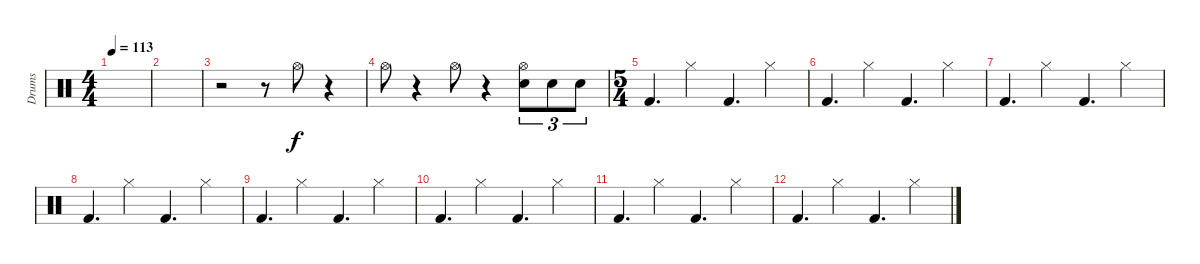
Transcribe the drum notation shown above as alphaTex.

\track ("Drums" "Drums") {instrument percussion}
\staff {score}
\articulation defaults
\ts (4 4)
\tempo 113
\clef neutral
\ks c
|
|
r.2 r.8 "Hi-Hat (open)".8 r.4 |
"Hi-Hat (open)".8 r.4 "Hi-Hat (open)".8 r.4 ("Hi-Hat (open)" "Electric Snare (hit)").8{tu (3 2)} "Electric Snare (hit)".8{tu (3 2)} "Electric Snare (hit)".8{tu (3 2)} |
\ts (5 4)
"Kick (hit) 2".4{d} "Hi-Hat (closed)".4 "Kick (hit) 2".4{d} "Hi-Hat (closed)".4 |
"Kick (hit) 2".4{d} "Hi-Hat (closed)".4 "Kick (hit) 2".4{d} "Hi-Hat (closed)".4 |
"Kick (hit) 2".4{d} "Hi-Hat (closed)".4 "Kick (hit) 2".4{d} "Hi-Hat (closed)".4 |
"Kick (hit) 2".4{d} "Hi-Hat (closed)".4 "Kick (hit) 2".4{d} "Hi-Hat (closed)".4 |
"Kick (hit) 2".4{d} "Hi-Hat (closed)".4 "Kick (hit) 2".4{d} "Hi-Hat (closed)".4 |
"Kick (hit) 2".4{d} "Hi-Hat (closed)".4 "Kick (hit) 2".4{d} "Hi-Hat (closed)".4 |
"Kick (hit) 2".4{d} "Hi-Hat (closed)".4 "Kick (hit) 2".4{d} "Hi-Hat (closed)".4 |
"Kick (hit) 2".4{d} "Hi-Hat (closed)".4 "Kick (hit) 2".4{d} "Hi-Hat (closed)".4
